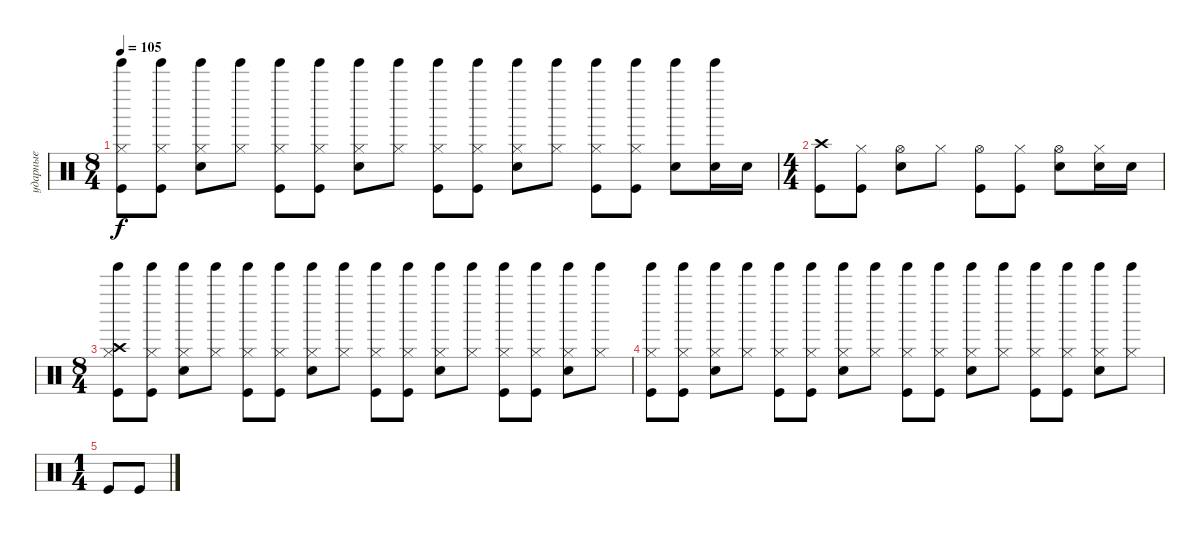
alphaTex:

\track ("ударные" "ударные") {instrument percussion}
\staff {score}
\articulation defaults
\ts (8 4)
\tempo 105
\clef neutral
\ks c
("Hi-Hat (closed)" "Kick (hit)" "Tinkle Bell (hit)").8{dy f} ("Hi-Hat (closed)" "Kick (hit)" "Tinkle Bell (hit)").8 ("Hi-Hat (closed)" "Snare (hit) 2" "Tinkle Bell (hit)").8 ("Hi-Hat (closed)" "Tinkle Bell (hit)").8 ("Hi-Hat (closed)" "Kick (hit)" "Tinkle Bell (hit)").8 ("Hi-Hat (closed)" "Kick (hit)" "Tinkle Bell (hit)").8 ("Hi-Hat (closed)" "Snare (hit) 2" "Tinkle Bell (hit)").8 ("Hi-Hat (closed)" "Tinkle Bell (hit)").8 ("Hi-Hat (closed)" "Kick (hit)" "Tinkle Bell (hit)").8 ("Hi-Hat (closed)" "Kick (hit)" "Tinkle Bell (hit)").8 ("Hi-Hat (closed)" "Snare (hit) 2" "Tinkle Bell (hit)").8 ("Hi-Hat (closed)" "Tinkle Bell (hit)").8 ("Hi-Hat (closed)" "Kick (hit)" "Tinkle Bell (hit)").8 ("Hi-Hat (closed)" "Kick (hit)" "Tinkle Bell (hit)").8 ("Snare (hit) 2" "Tinkle Bell (hit)").8 ("Snare (hit) 2" "Tinkle Bell (hit)").16 "Snare (hit) 2".16 |
\ts (4 4)
("Crash high (hit)" "Kick (hit)").8 ("Hi-Hat (closed)" "Kick (hit)").8 ("Hi-Hat (open)" "Snare (hit) 2").8 "Hi-Hat (closed)".8 ("Hi-Hat (open)" "Kick (hit)").8 ("Hi-Hat (closed)" "Kick (hit)").8 ("Hi-Hat (open)" "Snare (hit) 2").8 ("Hi-Hat (closed)" "Snare (hit) 2").16 "Snare (hit) 2".16 |
\ts (8 4)
("Hi-Hat (closed)" "Kick (hit)" "Crash high (hit)" "Tinkle Bell (hit)").8 ("Hi-Hat (closed)" "Kick (hit)" "Tinkle Bell (hit)").8 ("Hi-Hat (closed)" "Snare (hit) 2" "Tinkle Bell (hit)").8 ("Hi-Hat (closed)" "Tinkle Bell (hit)").8 ("Hi-Hat (closed)" "Kick (hit)" "Tinkle Bell (hit)").8 ("Hi-Hat (closed)" "Kick (hit)" "Tinkle Bell (hit)").8 ("Hi-Hat (closed)" "Snare (hit) 2" "Tinkle Bell (hit)").8 ("Hi-Hat (closed)" "Tinkle Bell (hit)").8 ("Hi-Hat (closed)" "Kick (hit)" "Tinkle Bell (hit)").8 ("Hi-Hat (closed)" "Kick (hit)" "Tinkle Bell (hit)").8 ("Hi-Hat (closed)" "Snare (hit) 2" "Tinkle Bell (hit)").8 ("Hi-Hat (closed)" "Tinkle Bell (hit)").8 ("Hi-Hat (closed)" "Kick (hit)" "Tinkle Bell (hit)").8 ("Hi-Hat (closed)" "Kick (hit)" "Tinkle Bell (hit)").8 ("Hi-Hat (closed)" "Snare (hit) 2" "Tinkle Bell (hit)").8 ("Hi-Hat (closed)" "Tinkle Bell (hit)").8 |
("Hi-Hat (closed)" "Kick (hit)" "Tinkle Bell (hit)").8 ("Hi-Hat (closed)" "Kick (hit)" "Tinkle Bell (hit)").8 ("Hi-Hat (closed)" "Snare (hit) 2" "Tinkle Bell (hit)").8 ("Hi-Hat (closed)" "Tinkle Bell (hit)").8 ("Hi-Hat (closed)" "Kick (hit)" "Tinkle Bell (hit)").8 ("Hi-Hat (closed)" "Kick (hit)" "Tinkle Bell (hit)").8 ("Hi-Hat (closed)" "Snare (hit) 2" "Tinkle Bell (hit)").8 ("Hi-Hat (closed)" "Tinkle Bell (hit)").8 ("Hi-Hat (closed)" "Kick (hit)" "Tinkle Bell (hit)").8 ("Hi-Hat (closed)" "Kick (hit)" "Tinkle Bell (hit)").8 ("Hi-Hat (closed)" "Snare (hit) 2" "Tinkle Bell (hit)").8 ("Hi-Hat (closed)" "Tinkle Bell (hit)").8 ("Hi-Hat (closed)" "Kick (hit)" "Tinkle Bell (hit)").8 ("Hi-Hat (closed)" "Kick (hit)" "Tinkle Bell (hit)").8 ("Hi-Hat (closed)" "Snare (hit) 2" "Tinkle Bell (hit)").8 ("Hi-Hat (closed)" "Tinkle Bell (hit)").8 |
\ts (1 4)
"Kick (hit)".8 "Kick (hit)".8
